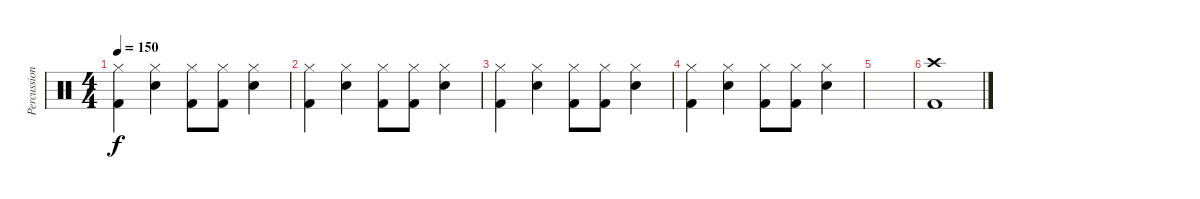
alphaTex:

\track ("Percussion" "Percussion") {instrument percussion}
\staff {score}
\articulation defaults
\ts (4 4)
\tempo 150
\clef neutral
\ks c
("Hi-Hat (closed)" "Kick (hit) 2").4{dy f} ("Hi-Hat (closed)" "Electric Snare (hit)").4 ("Hi-Hat (closed)" "Kick (hit) 2").8 ("Hi-Hat (closed)" "Kick (hit) 2").8 ("Hi-Hat (closed)" "Electric Snare (hit)").4 |
("Hi-Hat (closed)" "Kick (hit) 2").4 ("Hi-Hat (closed)" "Electric Snare (hit)").4 ("Hi-Hat (closed)" "Kick (hit) 2").8 ("Hi-Hat (closed)" "Kick (hit) 2").8 ("Hi-Hat (closed)" "Electric Snare (hit)").4 |
("Hi-Hat (closed)" "Kick (hit) 2").4 ("Hi-Hat (closed)" "Electric Snare (hit)").4 ("Hi-Hat (closed)" "Kick (hit) 2").8 ("Hi-Hat (closed)" "Kick (hit) 2").8 ("Hi-Hat (closed)" "Electric Snare (hit)").4 |
("Hi-Hat (closed)" "Kick (hit) 2").4 ("Hi-Hat (closed)" "Electric Snare (hit)").4 ("Hi-Hat (closed)" "Kick (hit) 2").8 ("Hi-Hat (closed)" "Kick (hit) 2").8 ("Hi-Hat (closed)" "Electric Snare (hit)").4 |
|
("Crash high (hit)" "Kick (hit) 2").1
